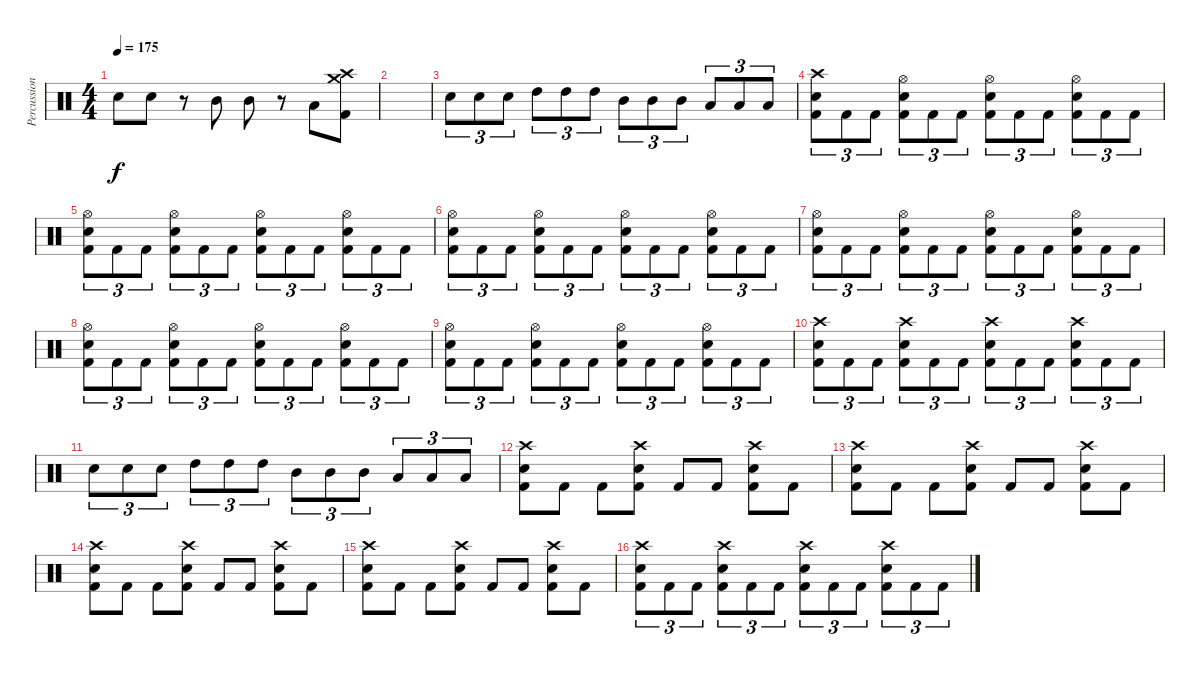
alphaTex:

\track ("Percussion" "Percussion") {instrument percussion}
\staff {score}
\articulation defaults
\ts (4 4)
\tempo 175
\clef neutral
\ks c "Electric Snare (hit)".8{dy f} "Electric Snare (hit)".8
r.8 "Mid Tom (hit)".8 "Mid Tom (hit)".8 r.8 "Low Tom (hit)".8 ("Kick (hit) 2" "Crash high (hit)" "Crash medium (hit)").8 |
|
"Electric Snare (hit)".8{tu (3 2)} "Electric Snare (hit)".8{tu (3 2)} "Electric Snare (hit)".8{tu (3 2)} "High Tom (hit)".8{tu (3 2)} "High Tom (hit)".8{tu (3 2)} "High Tom (hit)".8{tu (3 2)} "Mid Tom (hit)".8{tu (3 2)} "Mid Tom (hit)".8{tu (3 2)} "Mid Tom (hit)".8{tu (3 2)} "Low Tom (hit)".8{tu (3 2)} "Low Tom (hit)".8{tu (3 2)} "Low Tom (hit)".8{tu (3 2)} |
("Kick (hit) 2" "Crash high (hit)" "Electric Snare (hit)").8{tu (3 2)} "Kick (hit) 2".8{tu (3 2)} "Kick (hit) 2".8{tu (3 2)} ("Kick (hit) 2" "Hi-Hat (open)" "Electric Snare (hit)").8{tu (3 2)} "Kick (hit) 2".8{tu (3 2)} "Kick (hit) 2".8{tu (3 2)} ("Kick (hit) 2" "Hi-Hat (open)" "Electric Snare (hit)").8{tu (3 2)} "Kick (hit) 2".8{tu (3 2)} "Kick (hit) 2".8{tu (3 2)} ("Kick (hit) 2" "Hi-Hat (open)" "Electric Snare (hit)").8{tu (3 2)} "Kick (hit) 2".8{tu (3 2)} "Kick (hit) 2".8{tu (3 2)} |
("Kick (hit) 2" "Hi-Hat (open)" "Electric Snare (hit)").8{tu (3 2)} "Kick (hit) 2".8{tu (3 2)} "Kick (hit) 2".8{tu (3 2)} ("Kick (hit) 2" "Hi-Hat (open)" "Electric Snare (hit)").8{tu (3 2)} "Kick (hit) 2".8{tu (3 2)} "Kick (hit) 2".8{tu (3 2)} ("Kick (hit) 2" "Hi-Hat (open)" "Electric Snare (hit)").8{tu (3 2)} "Kick (hit) 2".8{tu (3 2)} "Kick (hit) 2".8{tu (3 2)} ("Kick (hit) 2" "Hi-Hat (open)" "Electric Snare (hit)").8{tu (3 2)} "Kick (hit) 2".8{tu (3 2)} "Kick (hit) 2".8{tu (3 2)} |
("Kick (hit) 2" "Hi-Hat (open)" "Electric Snare (hit)").8{tu (3 2)} "Kick (hit) 2".8{tu (3 2)} "Kick (hit) 2".8{tu (3 2)} ("Kick (hit) 2" "Hi-Hat (open)" "Electric Snare (hit)").8{tu (3 2)} "Kick (hit) 2".8{tu (3 2)} "Kick (hit) 2".8{tu (3 2)} ("Kick (hit) 2" "Hi-Hat (open)" "Electric Snare (hit)").8{tu (3 2)} "Kick (hit) 2".8{tu (3 2)} "Kick (hit) 2".8{tu (3 2)} ("Kick (hit) 2" "Hi-Hat (open)" "Electric Snare (hit)").8{tu (3 2)} "Kick (hit) 2".8{tu (3 2)} "Kick (hit) 2".8{tu (3 2)} |
("Kick (hit) 2" "Hi-Hat (open)" "Electric Snare (hit)").8{tu (3 2)} "Kick (hit) 2".8{tu (3 2)} "Kick (hit) 2".8{tu (3 2)} ("Kick (hit) 2" "Hi-Hat (open)" "Electric Snare (hit)").8{tu (3 2)} "Kick (hit) 2".8{tu (3 2)} "Kick (hit) 2".8{tu (3 2)} ("Kick (hit) 2" "Hi-Hat (open)" "Electric Snare (hit)").8{tu (3 2)} "Kick (hit) 2".8{tu (3 2)} "Kick (hit) 2".8{tu (3 2)} ("Kick (hit) 2" "Hi-Hat (open)" "Electric Snare (hit)").8{tu (3 2)} "Kick (hit) 2".8{tu (3 2)} "Kick (hit) 2".8{tu (3 2)} |
("Kick (hit) 2" "Hi-Hat (open)" "Electric Snare (hit)").8{tu (3 2)} "Kick (hit) 2".8{tu (3 2)} "Kick (hit) 2".8{tu (3 2)} ("Kick (hit) 2" "Hi-Hat (open)" "Electric Snare (hit)").8{tu (3 2)} "Kick (hit) 2".8{tu (3 2)} "Kick (hit) 2".8{tu (3 2)} ("Kick (hit) 2" "Hi-Hat (open)" "Electric Snare (hit)").8{tu (3 2)} "Kick (hit) 2".8{tu (3 2)} "Kick (hit) 2".8{tu (3 2)} ("Kick (hit) 2" "Hi-Hat (open)" "Electric Snare (hit)").8{tu (3 2)} "Kick (hit) 2".8{tu (3 2)} "Kick (hit) 2".8{tu (3 2)} |
("Kick (hit) 2" "Hi-Hat (open)" "Electric Snare (hit)").8{tu (3 2)} "Kick (hit) 2".8{tu (3 2)} "Kick (hit) 2".8{tu (3 2)} ("Kick (hit) 2" "Hi-Hat (open)" "Electric Snare (hit)").8{tu (3 2)} "Kick (hit) 2".8{tu (3 2)} "Kick (hit) 2".8{tu (3 2)} ("Kick (hit) 2" "Hi-Hat (open)" "Electric Snare (hit)").8{tu (3 2)} "Kick (hit) 2".8{tu (3 2)} "Kick (hit) 2".8{tu (3 2)} ("Kick (hit) 2" "Hi-Hat (open)" "Electric Snare (hit)").8{tu (3 2)} "Kick (hit) 2".8{tu (3 2)} "Kick (hit) 2".8{tu (3 2)} |
("Kick (hit) 2" "Crash high (hit)" "Electric Snare (hit)").8{tu (3 2)} "Kick (hit) 2".8{tu (3 2)} "Kick (hit) 2".8{tu (3 2)} ("Kick (hit) 2" "Crash high (hit)" "Electric Snare (hit)").8{tu (3 2)} "Kick (hit) 2".8{tu (3 2)} "Kick (hit) 2".8{tu (3 2)} ("Kick (hit) 2" "Crash high (hit)" "Electric Snare (hit)").8{tu (3 2)} "Kick (hit) 2".8{tu (3 2)} "Kick (hit) 2".8{tu (3 2)} ("Kick (hit) 2" "Crash high (hit)" "Electric Snare (hit)").8{tu (3 2)} "Kick (hit) 2".8{tu (3 2)} "Kick (hit) 2".8{tu (3 2)} |
"Electric Snare (hit)".8{tu (3 2)} "Electric Snare (hit)".8{tu (3 2)} "Electric Snare (hit)".8{tu (3 2)} "High Tom (hit)".8{tu (3 2)} "High Tom (hit)".8{tu (3 2)} "High Tom (hit)".8{tu (3 2)} "Mid Tom (hit)".8{tu (3 2)} "Mid Tom (hit)".8{tu (3 2)} "Mid Tom (hit)".8{tu (3 2)} "Low Tom (hit)".8{tu (3 2)} "Low Tom (hit)".8{tu (3 2)} "Low Tom (hit)".8{tu (3 2)} |
("Kick (hit) 2" "Crash high (hit)" "Electric Snare (hit)").8 "Kick (hit) 2".8 "Kick (hit) 2".8 ("Kick (hit) 2" "Crash high (hit)" "Electric Snare (hit)").8 "Kick (hit) 2".8 "Kick (hit) 2".8 ("Kick (hit) 2" "Crash high (hit)" "Electric Snare (hit)").8 "Kick (hit) 2".8 |
("Kick (hit) 2" "Crash high (hit)" "Electric Snare (hit)").8 "Kick (hit) 2".8 "Kick (hit) 2".8 ("Kick (hit) 2" "Crash high (hit)" "Electric Snare (hit)").8 "Kick (hit) 2".8 "Kick (hit) 2".8 ("Kick (hit) 2" "Crash high (hit)" "Electric Snare (hit)").8 "Kick (hit) 2".8 |
("Kick (hit) 2" "Crash high (hit)" "Electric Snare (hit)").8 "Kick (hit) 2".8 "Kick (hit) 2".8 ("Kick (hit) 2" "Crash high (hit)" "Electric Snare (hit)").8 "Kick (hit) 2".8 "Kick (hit) 2".8 ("Kick (hit) 2" "Crash high (hit)" "Electric Snare (hit)").8 "Kick (hit) 2".8 |
("Kick (hit) 2" "Crash high (hit)" "Electric Snare (hit)").8 "Kick (hit) 2".8 "Kick (hit) 2".8 ("Kick (hit) 2" "Crash high (hit)" "Electric Snare (hit)").8 "Kick (hit) 2".8 "Kick (hit) 2".8 ("Kick (hit) 2" "Crash high (hit)" "Electric Snare (hit)").8 "Kick (hit) 2".8 |
("Kick (hit) 2" "Crash high (hit)" "Electric Snare (hit)").8{tu (3 2)} "Kick (hit) 2".8{tu (3 2)} "Kick (hit) 2".8{tu (3 2)} ("Kick (hit) 2" "Crash high (hit)" "Electric Snare (hit)").8{tu (3 2)} "Kick (hit) 2".8{tu (3 2)} "Kick (hit) 2".8{tu (3 2)} ("Kick (hit) 2" "Crash high (hit)" "Electric Snare (hit)").8{tu (3 2)} "Kick (hit) 2".8{tu (3 2)} "Kick (hit) 2".8{tu (3 2)} ("Kick (hit) 2" "Crash high (hit)" "Electric Snare (hit)").8{tu (3 2)} "Kick (hit) 2".8{tu (3 2)} "Kick (hit) 2".8{tu (3 2)}
